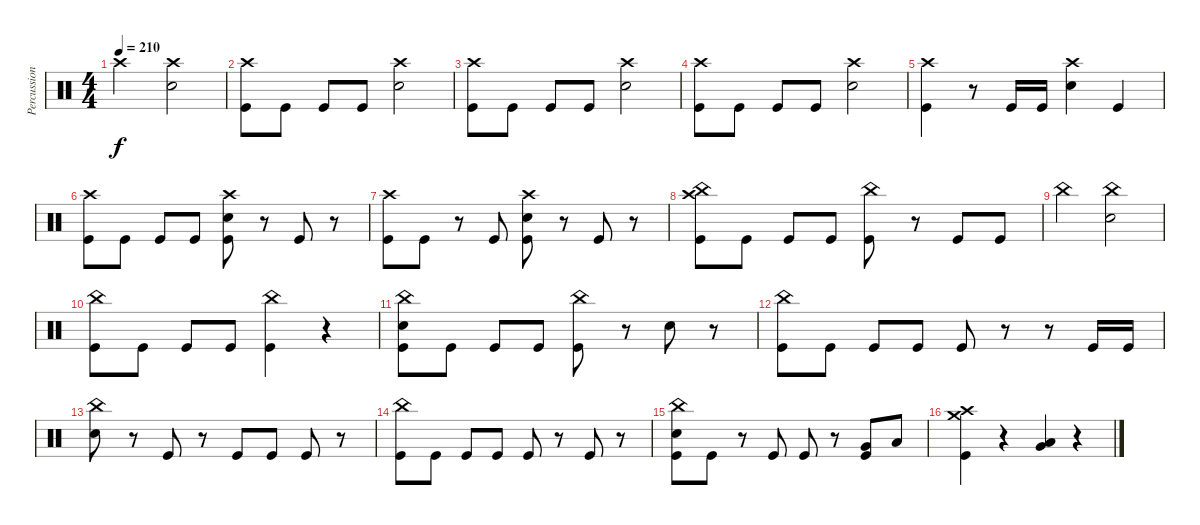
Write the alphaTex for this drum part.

\track ("Percussion" "Percussion") {instrument percussion}
\staff {score}
\articulation defaults
\ts (4 4)
\tempo 210
\clef neutral
\ks c "Crash high (hit)".2{dy f}
("Crash high (hit)" "Snare (hit) 2").2 |
("Crash high (hit)" "Kick (hit)").8 "Kick (hit)".8 "Kick (hit)".8 "Kick (hit)".8 ("Crash high (hit)" "Snare (hit) 2").2 |
("Crash high (hit)" "Kick (hit)").8 "Kick (hit)".8 "Kick (hit)".8 "Kick (hit)".8 ("Crash high (hit)" "Snare (hit) 2").2 |
("Crash high (hit)" "Kick (hit)").8 "Kick (hit)".8 "Kick (hit)".8 "Kick (hit)".8 ("Crash high (hit)" "Snare (hit) 2").2 |
("Crash high (hit)" "Kick (hit)").4 r.8 "Kick (hit)".16 "Kick (hit)".16 ("Crash high (hit)" "Snare (hit) 2").4 "Kick (hit)".4 |
("Crash high (hit)" "Kick (hit)").8 "Kick (hit)".8 "Kick (hit)".8 "Kick (hit)".8 ("Crash high (hit)" "Snare (hit) 2" "Kick (hit)").8 r.8 "Kick (hit)".8 r.8 |
("Crash high (hit)" "Kick (hit)").8 "Kick (hit)".8 r.8 "Kick (hit)".8 ("Crash high (hit)" "Snare (hit) 2" "Kick (hit)").8 r.8 "Kick (hit)".8 r.8 |
("China (hit)" "Crash high (hit)" "Kick (hit)").8 "Kick (hit)".8 "Kick (hit)".8 "Kick (hit)".8 ("China (hit)" "Kick (hit)").8 r.8 "Kick (hit)".8 "Kick (hit)".8 |
"China (hit)".2 ("China (hit)" "Snare (hit) 2").2 |
("China (hit)" "Kick (hit)").8 "Kick (hit)".8 "Kick (hit)".8 "Kick (hit)".8 ("China (hit)" "Kick (hit)").4 r.4 |
("China (hit)" "Snare (hit) 2" "Kick (hit)").8 "Kick (hit)".8 "Kick (hit)".8 "Kick (hit)".8 ("China (hit)" "Kick (hit)").8 r.8 "Snare (hit) 2".8 r.8 |
("China (hit)" "Kick (hit)").8 "Kick (hit)".8 "Kick (hit)".8 "Kick (hit)".8 "Kick (hit)".8 r.8 r.8 "Kick (hit)".16 "Kick (hit)".16 |
("China (hit)" "Snare (hit) 2").8 r.8 "Kick (hit)".8 r.8 "Kick (hit)".8 "Kick (hit)".8 "Kick (hit)".8 r.8 |
("China (hit)" "Kick (hit)").8 "Kick (hit)".8 "Kick (hit)".8 "Kick (hit)".8 "Kick (hit)".8 r.8 "Kick (hit)".8 r.8 |
("China (hit)" "Snare (hit) 2" "Kick (hit)").8 "Kick (hit)".8 r.8 "Kick (hit)".8 "Kick (hit)".8 r.8 ("Very Low Tom (hit)" "Kick (hit)").8 "Low Tom (hit)".8 |
("Crash medium (hit)" "Crash high (hit)" "Kick (hit)").4 r.4 ("Low Tom (hit)" "Very Low Tom (hit)").4 r.4
